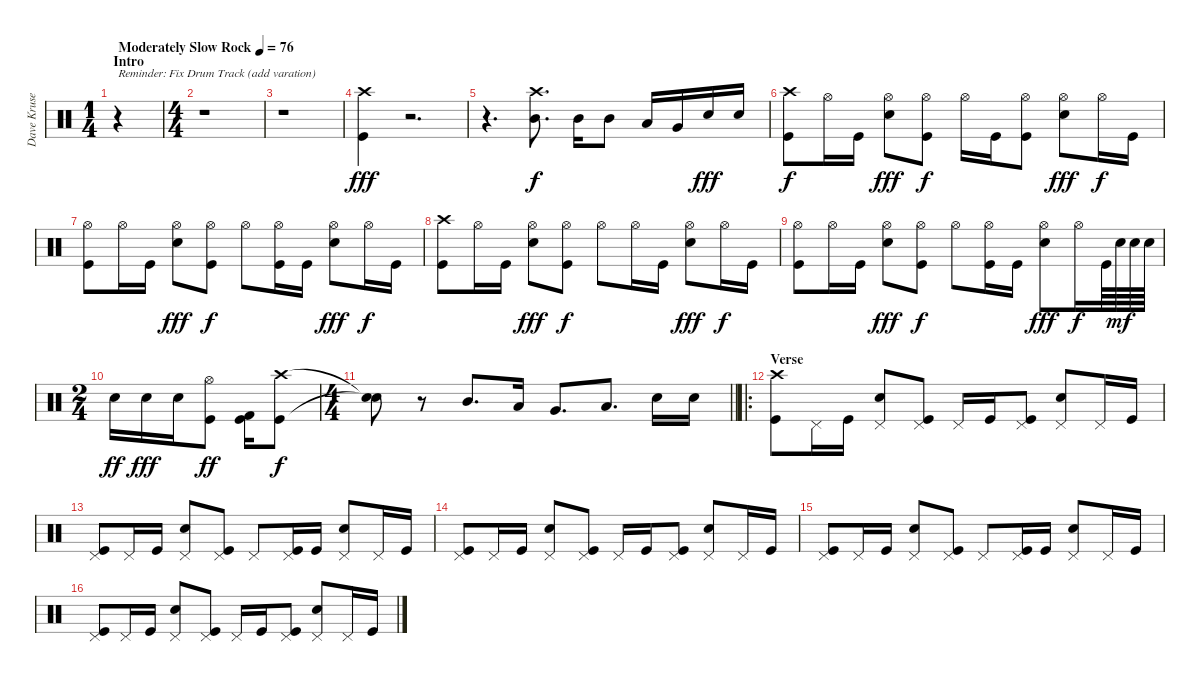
\track ("Dave Krusen" "Dave Kruse") {instrument percussion}
\staff {score}
\articulation defaults
\ts (1 4)
\section ("" "Intro")
\tempo (76 "Moderately Slow Rock")
\clef neutral
\ks c
r.4{txt "Reminder: Fix Drum Track (add varation)" dy fff} |
\ts (4 4)
r.1 |
r.1 |
("Kick (hit)" "Crash high (hit)").4 r.2{d} |
r.4{d} ("Mid Tom (hit)" "Crash high (hit)").8{d dy f} "Mid Tom (hit)".16 "Mid Tom (hit)".8 "Low Tom (hit)".16 "Very Low Tom (hit)".16 "Electric Snare (hit)".16{dy fff} "Electric Snare (hit)".16 |
("Crash high (hit)" "Kick (hit)").8{dy f} "Hi-Hat (open)".16 "Kick (hit)".16 ("Hi-Hat (open)" "Electric Snare (hit)").8{dy fff} ("Hi-Hat (open)" "Kick (hit)").8{dy f} "Hi-Hat (open)".16 "Kick (hit)".16 ("Hi-Hat (open)" "Kick (hit)").8 ("Hi-Hat (open)" "Electric Snare (hit)").8{dy fff} "Hi-Hat (open)".16{dy f} "Kick (hit)".16 |
("Hi-Hat (open)" "Kick (hit)").8 "Hi-Hat (open)".16 "Kick (hit)".16 ("Hi-Hat (open)" "Electric Snare (hit)").8{dy fff} ("Hi-Hat (open)" "Kick (hit)").8{dy f} "Hi-Hat (open)".8 ("Hi-Hat (open)" "Kick (hit)").16 "Kick (hit)".16 ("Hi-Hat (open)" "Electric Snare (hit)").8{dy fff} "Hi-Hat (open)".16{dy f} "Kick (hit)".16 |
("Crash high (hit)" "Kick (hit)").8 "Hi-Hat (open)".16 "Kick (hit)".16 ("Hi-Hat (open)" "Electric Snare (hit)").8{dy fff} ("Hi-Hat (open)" "Kick (hit)").8{dy f} "Hi-Hat (open)".8 "Hi-Hat (open)".16 "Kick (hit)".16 ("Hi-Hat (open)" "Electric Snare (hit)").8{dy fff} "Hi-Hat (open)".16{dy f} "Kick (hit)".16 |
("Hi-Hat (open)" "Kick (hit)").8 "Hi-Hat (open)".16 "Kick (hit)".16 ("Hi-Hat (open)" "Electric Snare (hit)").8{dy fff} ("Hi-Hat (open)" "Kick (hit)").8{dy f} "Hi-Hat (open)".8 ("Hi-Hat (open)" "Kick (hit)").16 "Kick (hit)".16 ("Hi-Hat (open)" "Electric Snare (hit)").8{dy fff} "Hi-Hat (open)".16{dy f} "Kick (hit)".64 "Electric Snare (hit)".64{dy mf} "Electric Snare (hit)".64 "Electric Snare (hit)".64 |
\ts (2 4)
"Electric Snare (hit)".16{dy ff} "Electric Snare (hit)".16{dy fff} "Electric Snare (hit)".16 ("Kick (hit)" "Hi-Hat (open)").8{dy ff} ("Kick (hit)" "Kick (hit) 2").16 ("Kick (hit)" "Crash high (hit)").8{dy f} |
\ts (4 4)
\barLineRight lightlight
("Snare (hit)"{t} "Snare (hit)"{t}).8 r.8 "Mid Tom (hit)".8{d} "Low Tom (hit)".16 "Very Low Tom (hit)".8{d} "Low Floor Tom (hit)".8{d} "Electric Snare (hit)".16 "Electric Snare (hit)".16 |
\ro
\section ("" "Verse")
("Crash high (hit)" "Kick (hit)").8 "Pedal Hi-Hat (hit)".16 "Kick (hit)".16 ("Pedal Hi-Hat (hit)" "Electric Snare (hit)").8 ("Pedal Hi-Hat (hit)" "Kick (hit)").8 "Pedal Hi-Hat (hit)".16 "Kick (hit)".16 ("Pedal Hi-Hat (hit)" "Kick (hit)").8 ("Pedal Hi-Hat (hit)" "Electric Snare (hit)").8 "Pedal Hi-Hat (hit)".16 "Kick (hit)".16 |
("Pedal Hi-Hat (hit)" "Kick (hit)").8 "Pedal Hi-Hat (hit)".16 "Kick (hit)".16 ("Pedal Hi-Hat (hit)" "Electric Snare (hit)").8 ("Pedal Hi-Hat (hit)" "Kick (hit)").8 "Pedal Hi-Hat (hit)".8 ("Pedal Hi-Hat (hit)" "Kick (hit)").16 "Kick (hit)".16 ("Pedal Hi-Hat (hit)" "Electric Snare (hit)").8 "Pedal Hi-Hat (hit)".16 "Kick (hit)".16 |
("Pedal Hi-Hat (hit)" "Kick (hit)").8 "Pedal Hi-Hat (hit)".16 "Kick (hit)".16 ("Pedal Hi-Hat (hit)" "Electric Snare (hit)").8 ("Pedal Hi-Hat (hit)" "Kick (hit)").8 "Pedal Hi-Hat (hit)".16 "Kick (hit)".16 ("Pedal Hi-Hat (hit)" "Kick (hit)").8 ("Pedal Hi-Hat (hit)" "Electric Snare (hit)").8 "Pedal Hi-Hat (hit)".16 "Kick (hit)".16 |
("Pedal Hi-Hat (hit)" "Kick (hit)").8 "Pedal Hi-Hat (hit)".16 "Kick (hit)".16 ("Pedal Hi-Hat (hit)" "Electric Snare (hit)").8 ("Pedal Hi-Hat (hit)" "Kick (hit)").8 "Pedal Hi-Hat (hit)".8 ("Pedal Hi-Hat (hit)" "Kick (hit)").16 "Kick (hit)".16 ("Pedal Hi-Hat (hit)" "Electric Snare (hit)").8 "Pedal Hi-Hat (hit)".16 "Kick (hit)".16 |
("Pedal Hi-Hat (hit)" "Kick (hit)").8 "Pedal Hi-Hat (hit)".16 "Kick (hit)".16 ("Pedal Hi-Hat (hit)" "Electric Snare (hit)").8 ("Pedal Hi-Hat (hit)" "Kick (hit)").8 "Pedal Hi-Hat (hit)".16 "Kick (hit)".16 ("Pedal Hi-Hat (hit)" "Kick (hit)").8 ("Pedal Hi-Hat (hit)" "Electric Snare (hit)").8 "Pedal Hi-Hat (hit)".16 "Kick (hit)".16
